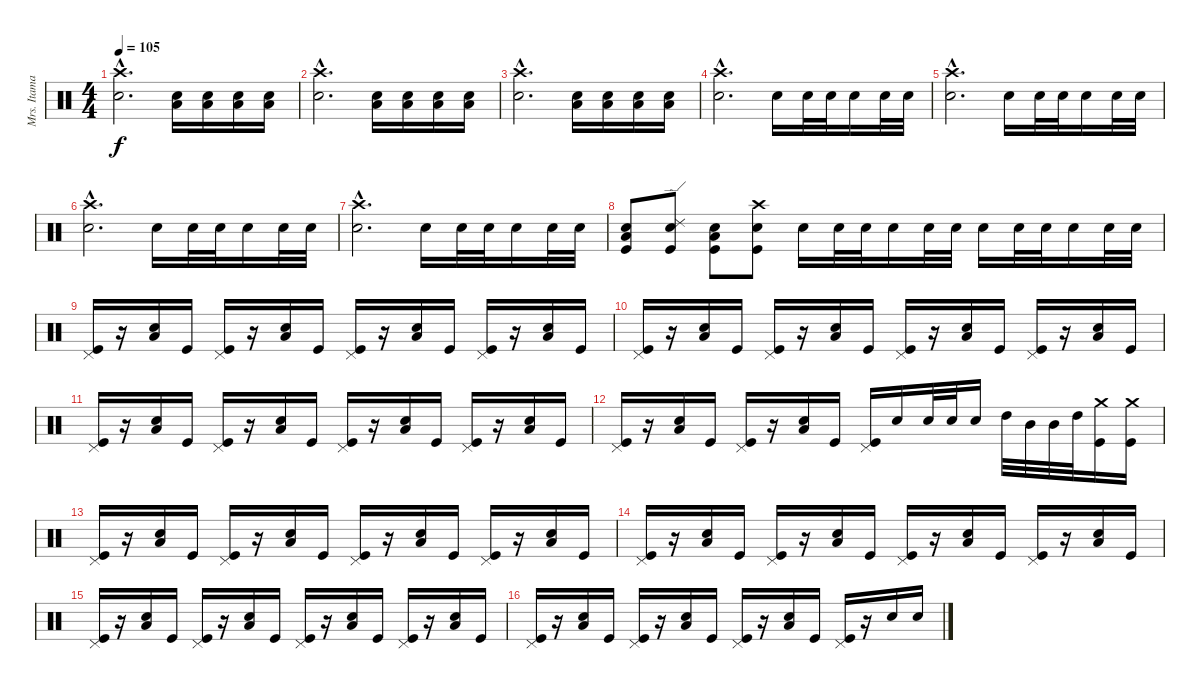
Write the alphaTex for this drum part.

\track ("Mrs. Itamar" "Mrs. Itama") {instrument percussion}
\staff {score}
\articulation defaults
\ts (4 4)
\tempo 105
\clef neutral
\ks c
("Crash high (hit)"{hac} "Electric Snare (hit)"{hac}).2{d dy f} ("Low Tom (hit)" "Electric Snare (hit)").16 ("Low Tom (hit)" "Electric Snare (hit)").16 ("Low Tom (hit)" "Electric Snare (hit)").16 ("Low Tom (hit)" "Electric Snare (hit)").16 |
("Crash high (hit)"{hac} "Electric Snare (hit)"{hac}).2{d} ("Low Tom (hit)" "Electric Snare (hit)").16 ("Low Tom (hit)" "Electric Snare (hit)").16 ("Low Tom (hit)" "Electric Snare (hit)").16 ("Low Tom (hit)" "Electric Snare (hit)").16 |
("Crash high (hit)"{hac} "Electric Snare (hit)"{hac}).2{d} ("Low Tom (hit)" "Electric Snare (hit)").16 ("Low Tom (hit)" "Electric Snare (hit)").16 ("Low Tom (hit)" "Electric Snare (hit)").16 ("Low Tom (hit)" "Electric Snare (hit)").16 |
("Crash high (hit)"{hac} "Electric Snare (hit)"{hac}).2{d} "Electric Snare (hit)".16 "Electric Snare (hit)".32 "Electric Snare (hit)".32 "Electric Snare (hit)".16 "Electric Snare (hit)".32 "Electric Snare (hit)".32 |
("Crash high (hit)"{hac} "Electric Snare (hit)"{hac}).2{d} "Electric Snare (hit)".16 "Electric Snare (hit)".32 "Electric Snare (hit)".32 "Electric Snare (hit)".16 "Electric Snare (hit)".32 "Electric Snare (hit)".32 |
("Crash high (hit)"{hac} "Electric Snare (hit)"{hac}).2{d} "Electric Snare (hit)".16 "Electric Snare (hit)".32 "Electric Snare (hit)".32 "Electric Snare (hit)".16 "Electric Snare (hit)".32 "Electric Snare (hit)".32 |
("Crash high (hit)"{hac} "Electric Snare (hit)"{hac}).2{d} "Electric Snare (hit)".16 "Electric Snare (hit)".32 "Electric Snare (hit)".32 "Electric Snare (hit)".16 "Electric Snare (hit)".32 "Electric Snare (hit)".32 |
("Low Tom (hit)" "Electric Snare (hit)" "Kick (hit)").8 ("Ride (edge) 2" "Electric Snare (hit)" "Kick (hit)").8 ("Low Tom (hit)" "Electric Snare (hit)" "Kick (hit)").8 ("Crash high (hit)" "Electric Snare (hit)" "Kick (hit)").8 "Electric Snare (hit)".16 "Electric Snare (hit)".32 "Electric Snare (hit)".32 "Electric Snare (hit)".16 "Electric Snare (hit)".32 "Electric Snare (hit)".32 "Electric Snare (hit)".16 "Electric Snare (hit)".32 "Electric Snare (hit)".32 "Electric Snare (hit)".16 "Electric Snare (hit)".32 "Electric Snare (hit)".32 |
("Kick (hit)" "Pedal Hi-Hat (hit)").16 r.16 ("Electric Snare (hit)" "Low Tom (hit)").16 "Kick (hit)".16 ("Kick (hit)" "Pedal Hi-Hat (hit)").16 r.16 ("Electric Snare (hit)" "Low Tom (hit)").16 "Kick (hit)".16 ("Kick (hit)" "Pedal Hi-Hat (hit)").16 r.16 ("Electric Snare (hit)" "Low Tom (hit)").16 "Kick (hit)".16 ("Kick (hit)" "Pedal Hi-Hat (hit)").16 r.16 ("Electric Snare (hit)" "Low Tom (hit)").16 "Kick (hit)".16 |
("Kick (hit)" "Pedal Hi-Hat (hit)").16 r.16 ("Electric Snare (hit)" "Low Tom (hit)").16 "Kick (hit)".16 ("Kick (hit)" "Pedal Hi-Hat (hit)").16 r.16 ("Electric Snare (hit)" "Low Tom (hit)").16 "Kick (hit)".16 ("Kick (hit)" "Pedal Hi-Hat (hit)").16 r.16 ("Electric Snare (hit)" "Low Tom (hit)").16 "Kick (hit)".16 ("Kick (hit)" "Pedal Hi-Hat (hit)").16 r.16 ("Electric Snare (hit)" "Low Tom (hit)").16 "Kick (hit)".16 |
("Kick (hit)" "Pedal Hi-Hat (hit)").16 r.16 ("Electric Snare (hit)" "Low Tom (hit)").16 "Kick (hit)".16 ("Kick (hit)" "Pedal Hi-Hat (hit)").16 r.16 ("Electric Snare (hit)" "Low Tom (hit)").16 "Kick (hit)".16 ("Kick (hit)" "Pedal Hi-Hat (hit)").16 r.16 ("Electric Snare (hit)" "Low Tom (hit)").16 "Kick (hit)".16 ("Kick (hit)" "Pedal Hi-Hat (hit)").16 r.16 ("Electric Snare (hit)" "Low Tom (hit)").16 "Kick (hit)".16 |
("Kick (hit)" "Pedal Hi-Hat (hit)").16 r.16 ("Electric Snare (hit)" "Low Tom (hit)").16 "Kick (hit)".16 ("Kick (hit)" "Pedal Hi-Hat (hit)").16 r.16 ("Electric Snare (hit)" "Low Tom (hit)").16 "Kick (hit)".16 ("Kick (hit)" "Pedal Hi-Hat (hit)").16 "Electric Snare (hit)".16 "Electric Snare (hit)".32 "Electric Snare (hit)".32 "Electric Snare (hit)".16 "High Tom (hit)".32 "Mid Tom (hit)".32 "Mid Tom (hit)".32 "High Tom (hit)".32 ("Crash medium (hit)" "Kick (hit)").16 ("Crash medium (hit)" "Kick (hit)").16 |
("Kick (hit)" "Pedal Hi-Hat (hit)").16 r.16 ("Electric Snare (hit)" "Low Tom (hit)").16 "Kick (hit)".16 ("Kick (hit)" "Pedal Hi-Hat (hit)").16 r.16 ("Electric Snare (hit)" "Low Tom (hit)").16 "Kick (hit)".16 ("Kick (hit)" "Pedal Hi-Hat (hit)").16 r.16 ("Electric Snare (hit)" "Low Tom (hit)").16 "Kick (hit)".16 ("Kick (hit)" "Pedal Hi-Hat (hit)").16 r.16 ("Electric Snare (hit)" "Low Tom (hit)").16 "Kick (hit)".16 |
("Kick (hit)" "Pedal Hi-Hat (hit)").16 r.16 ("Electric Snare (hit)" "Low Tom (hit)").16 "Kick (hit)".16 ("Kick (hit)" "Pedal Hi-Hat (hit)").16 r.16 ("Electric Snare (hit)" "Low Tom (hit)").16 "Kick (hit)".16 ("Kick (hit)" "Pedal Hi-Hat (hit)").16 r.16 ("Electric Snare (hit)" "Low Tom (hit)").16 "Kick (hit)".16 ("Kick (hit)" "Pedal Hi-Hat (hit)").16 r.16 ("Electric Snare (hit)" "Low Tom (hit)").16 "Kick (hit)".16 |
("Kick (hit)" "Pedal Hi-Hat (hit)").16 r.16 ("Electric Snare (hit)" "Low Tom (hit)").16 "Kick (hit)".16 ("Kick (hit)" "Pedal Hi-Hat (hit)").16 r.16 ("Electric Snare (hit)" "Low Tom (hit)").16 "Kick (hit)".16 ("Kick (hit)" "Pedal Hi-Hat (hit)").16 r.16 ("Electric Snare (hit)" "Low Tom (hit)").16 "Kick (hit)".16 ("Kick (hit)" "Pedal Hi-Hat (hit)").16 r.16 ("Electric Snare (hit)" "Low Tom (hit)").16 "Kick (hit)".16 |
("Kick (hit)" "Pedal Hi-Hat (hit)").16 r.16 ("Electric Snare (hit)" "Low Tom (hit)").16 "Kick (hit)".16 ("Kick (hit)" "Pedal Hi-Hat (hit)").16 r.16 ("Electric Snare (hit)" "Low Tom (hit)").16 "Kick (hit)".16 ("Kick (hit)" "Pedal Hi-Hat (hit)").16 r.16 ("Electric Snare (hit)" "Low Tom (hit)").16 "Kick (hit)".16 ("Kick (hit)" "Pedal Hi-Hat (hit)").16 r.16 "Electric Snare (hit)".16 "Electric Snare (hit)".16
